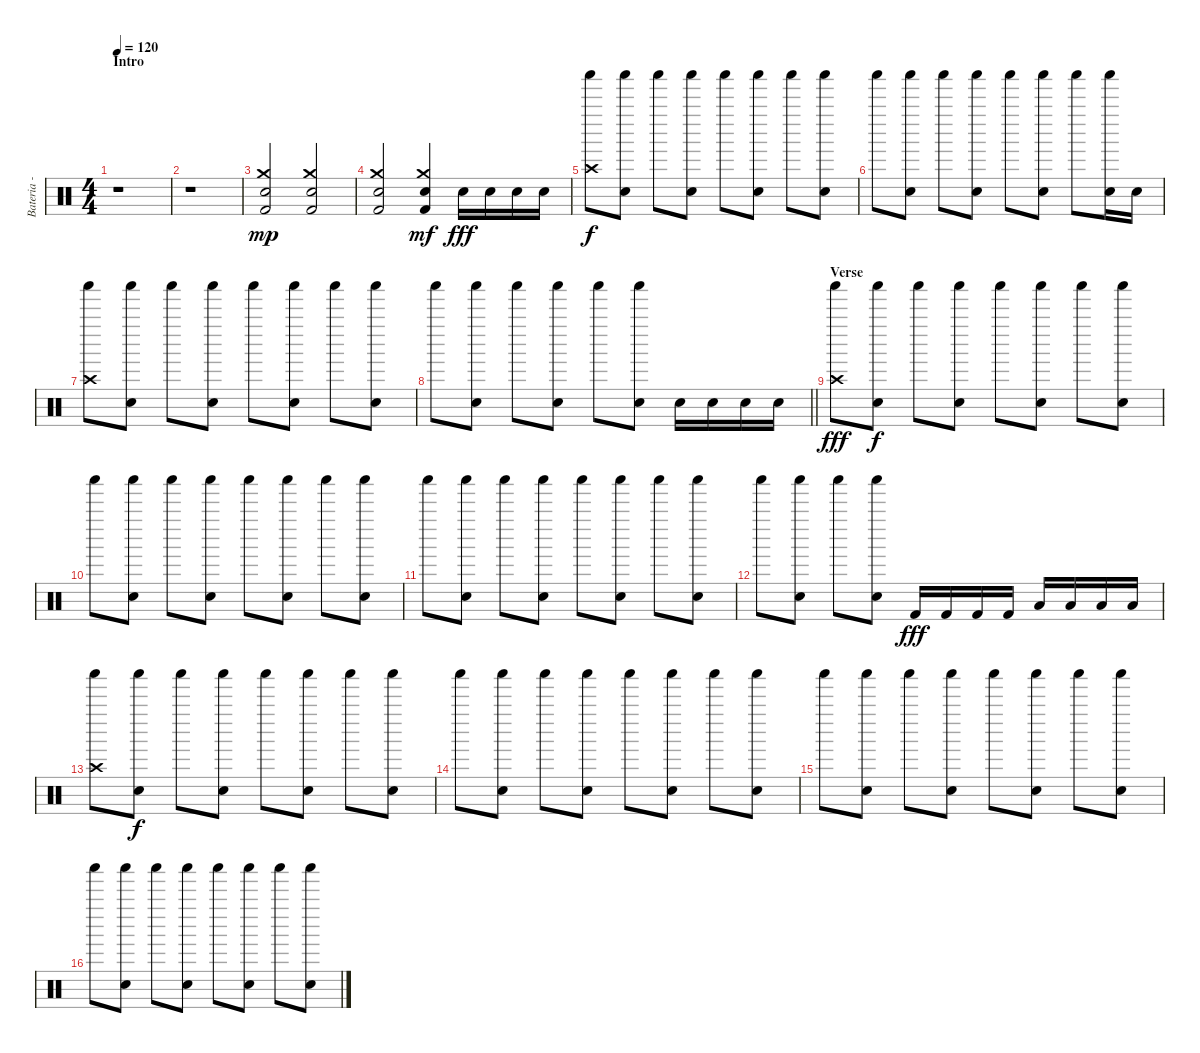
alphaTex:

\track ("Bateria - Larzon" "Bateria - ") {instrument percussion}
\staff {score}
\articulation defaults
\ts (4 4)
\section ("" "Intro")
\tempo 120
\clef neutral
\ks c
r.1{dy mp} |
r.1 |
("Kick (hit) 2" "Crash medium (hit)" "Snare (hit) 2").2 ("Kick (hit) 2" "Crash medium (hit)" "Snare (hit) 2").2 |
("Kick (hit) 2" "Crash medium (hit)" "Snare (hit) 2").2 ("Kick (hit) 2" "Crash medium (hit)" "Snare (hit) 2").4{dy mf} "Snare (hit) 2".16{dy fff} "Snare (hit) 2".16 "Snare (hit) 2".16 "Snare (hit) 2".16 |
("Crash high (hit)" "Shaker (hit)").8{dy f} ("Shaker (hit)" "Electric Snare (hit)").8 "Shaker (hit)".8 ("Shaker (hit)" "Electric Snare (hit)").8 "Shaker (hit)".8 ("Shaker (hit)" "Electric Snare (hit)").8 "Shaker (hit)".8 ("Shaker (hit)" "Electric Snare (hit)").8 |
"Shaker (hit)".8 ("Shaker (hit)" "Electric Snare (hit)").8 "Shaker (hit)".8 ("Shaker (hit)" "Electric Snare (hit)").8 "Shaker (hit)".8 ("Shaker (hit)" "Electric Snare (hit)").8 "Shaker (hit)".8 ("Shaker (hit)" "Electric Snare (hit)").16 "Electric Snare (hit)".16 |
("Crash high (hit)" "Shaker (hit)").8 ("Shaker (hit)" "Electric Snare (hit)").8 "Shaker (hit)".8 ("Shaker (hit)" "Electric Snare (hit)").8 "Shaker (hit)".8 ("Shaker (hit)" "Electric Snare (hit)").8 "Shaker (hit)".8 ("Shaker (hit)" "Electric Snare (hit)").8 |
\barLineRight lightlight "Shaker (hit)".8
("Shaker (hit)" "Electric Snare (hit)").8 "Shaker (hit)".8 ("Shaker (hit)" "Electric Snare (hit)").8 "Shaker (hit)".8 ("Shaker (hit)" "Electric Snare (hit)").8 "Electric Snare (hit)".16 "Electric Snare (hit)".16 "Electric Snare (hit)".16 "Electric Snare (hit)".16 |
\section ("" "Verse")
("Crash high (hit)" "Shaker (hit)").8{dy fff} ("Shaker (hit)" "Electric Snare (hit)").8{dy f} "Shaker (hit)".8 ("Shaker (hit)" "Electric Snare (hit)").8 "Shaker (hit)".8 ("Shaker (hit)" "Electric Snare (hit)").8 "Shaker (hit)".8 ("Shaker (hit)" "Electric Snare (hit)").8 |
"Shaker (hit)".8 ("Shaker (hit)" "Electric Snare (hit)").8 "Shaker (hit)".8 ("Shaker (hit)" "Electric Snare (hit)").8 "Shaker (hit)".8 ("Shaker (hit)" "Electric Snare (hit)").8 "Shaker (hit)".8 ("Shaker (hit)" "Electric Snare (hit)").8 |
"Shaker (hit)".8 ("Shaker (hit)" "Electric Snare (hit)").8 "Shaker (hit)".8 ("Shaker (hit)" "Electric Snare (hit)").8 "Shaker (hit)".8 ("Shaker (hit)" "Electric Snare (hit)").8 "Shaker (hit)".8 ("Shaker (hit)" "Electric Snare (hit)").8 |
"Shaker (hit)".8 ("Shaker (hit)" "Electric Snare (hit)").8 "Shaker (hit)".8 ("Shaker (hit)" "Electric Snare (hit)").8 "Kick (hit) 2".16{dy fff} "Kick (hit) 2".16 "Kick (hit) 2".16 "Kick (hit) 2".16 "Low Tom (hit)".16 "Low Tom (hit)".16 "Low Tom (hit)".16 "Low Tom (hit)".16 |
("Crash high (hit)" "Shaker (hit)").8 ("Shaker (hit)" "Electric Snare (hit)").8{dy f} "Shaker (hit)".8 ("Shaker (hit)" "Electric Snare (hit)").8 "Shaker (hit)".8 ("Shaker (hit)" "Electric Snare (hit)").8 "Shaker (hit)".8 ("Shaker (hit)" "Electric Snare (hit)").8 |
"Shaker (hit)".8 ("Shaker (hit)" "Electric Snare (hit)").8 "Shaker (hit)".8 ("Shaker (hit)" "Electric Snare (hit)").8 "Shaker (hit)".8 ("Shaker (hit)" "Electric Snare (hit)").8 "Shaker (hit)".8 ("Shaker (hit)" "Electric Snare (hit)").8 |
"Shaker (hit)".8 ("Shaker (hit)" "Electric Snare (hit)").8 "Shaker (hit)".8 ("Shaker (hit)" "Electric Snare (hit)").8 "Shaker (hit)".8 ("Shaker (hit)" "Electric Snare (hit)").8 "Shaker (hit)".8 ("Shaker (hit)" "Electric Snare (hit)").8 |
"Shaker (hit)".8 ("Shaker (hit)" "Electric Snare (hit)").8 "Shaker (hit)".8 ("Shaker (hit)" "Electric Snare (hit)").8 "Shaker (hit)".8 ("Shaker (hit)" "Electric Snare (hit)").8 "Shaker (hit)".8 ("Shaker (hit)" "Electric Snare (hit)").8
